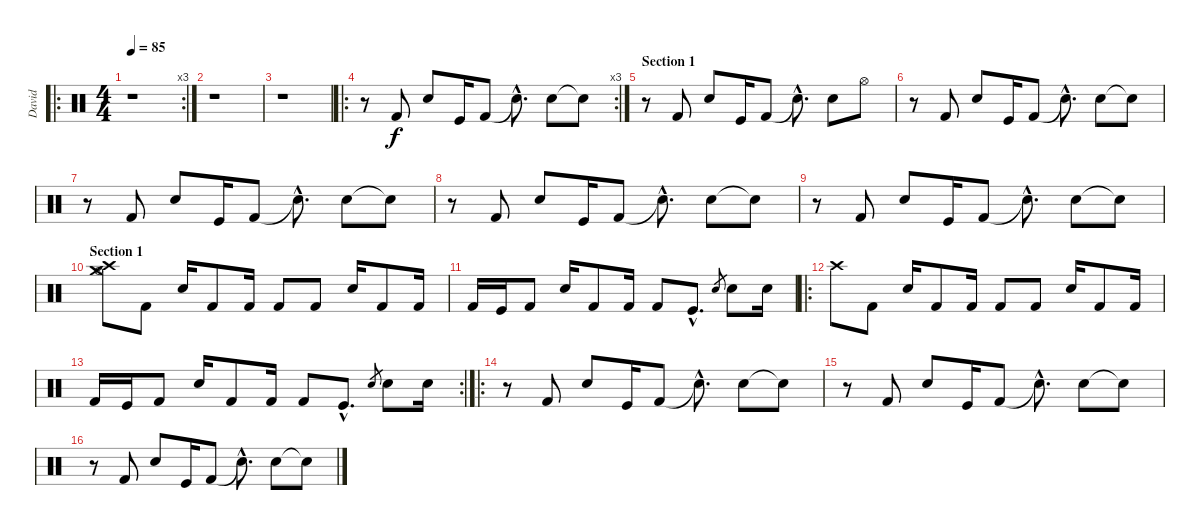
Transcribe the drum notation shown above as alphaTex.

\track ("David" "David") {instrument percussion}
\staff {score}
\articulation defaults
\ro
\rc 3
\ts (4 4)
\tempo 85
\clef neutral
\ks c
r.1{dy f} |
r.1 |
r.1 |
\ro
\rc 3
r.8 "Kick (hit) 2".8 "Snare (hit) 2".8 "Kick (hit)".16 "Kick (hit) 2".8 "Snare (hit)"{hac t}.8{d} "Snare (hit) 2".8 "Snare (hit)"{t}.8 |
\section ("" "Section 1")
r.8 "Kick (hit) 2".8 "Snare (hit) 2".8 "Kick (hit)".16 "Kick (hit) 2".8 "Snare (hit)"{hac t}.8{d} "Snare (hit) 2".8 "Hi-Hat (open)".8 |
r.8 "Kick (hit) 2".8 "Snare (hit) 2".8 "Kick (hit)".16 "Kick (hit) 2".8 "Snare (hit)"{hac t}.8{d} "Snare (hit) 2".8 "Snare (hit)"{t}.8 |
r.8 "Kick (hit) 2".8 "Snare (hit) 2".8 "Kick (hit)".16 "Kick (hit) 2".8 "Snare (hit)"{hac t}.8{d} "Snare (hit) 2".8 "Snare (hit)"{t}.8 |
r.8 "Kick (hit) 2".8 "Snare (hit) 2".8 "Kick (hit)".16 "Kick (hit) 2".8 "Snare (hit)"{hac t}.8{d} "Snare (hit) 2".8 "Snare (hit)"{t}.8 |
r.8 "Kick (hit) 2".8 "Snare (hit) 2".8 "Kick (hit)".16 "Kick (hit) 2".8 "Snare (hit)"{hac t}.8{d} "Snare (hit) 2".8 "Snare (hit)"{t}.8 |
\section ("" "Section 1")
("Crash medium (hit)" "Crash high (hit)" "Hi-Hat (open)").8 "Kick (hit) 2".8 "Snare (hit) 2".16 "Kick (hit) 2".8 "Kick (hit) 2".16 "Kick (hit) 2".8 "Kick (hit) 2".8 "Snare (hit) 2".16 "Kick (hit) 2".8 "Kick (hit) 2".16 |
"Kick (hit) 2".16 "Kick (hit)".16 "Kick (hit) 2".8 "Snare (hit) 2".16 "Kick (hit) 2".8 "Kick (hit) 2".16 "Kick (hit) 2".8 "Kick (hit)"{hac}.8{d} "Snare (hit) 2".8{gr} "Snare (hit) 2".8 "Snare (hit) 2".16 |
\ro "Crash high (hit)".8 "Kick (hit) 2".8 "Snare (hit) 2".16 "Kick (hit) 2".8 "Kick (hit) 2".16 "Kick (hit) 2".8 "Kick (hit) 2".8 "Snare (hit) 2".16 "Kick (hit) 2".8 "Kick (hit) 2".16
|
\rc 2 "Kick (hit) 2".16 "Kick (hit)".16 "Kick (hit) 2".8 "Snare (hit) 2".16 "Kick (hit) 2".8 "Kick (hit) 2".16 "Kick (hit) 2".8 "Kick (hit)"{hac}.8{d} "Snare (hit) 2".8{gr} "Snare (hit) 2".8 "Snare (hit) 2".16
|
\ro
r.8 "Kick (hit) 2".8 "Snare (hit) 2".8 "Kick (hit)".16 "Kick (hit) 2".8 "Snare (hit)"{hac t}.8{d} "Snare (hit) 2".8 "Snare (hit)"{t}.8 |
r.8 "Kick (hit) 2".8 "Snare (hit) 2".8 "Kick (hit)".16 "Kick (hit) 2".8 "Snare (hit)"{hac t}.8{d} "Snare (hit) 2".8 "Snare (hit)"{t}.8 |
r.8 "Kick (hit) 2".8 "Snare (hit) 2".8 "Kick (hit)".16 "Kick (hit) 2".8 "Snare (hit)"{hac t}.8{d} "Snare (hit) 2".8 "Snare (hit)"{t}.8
